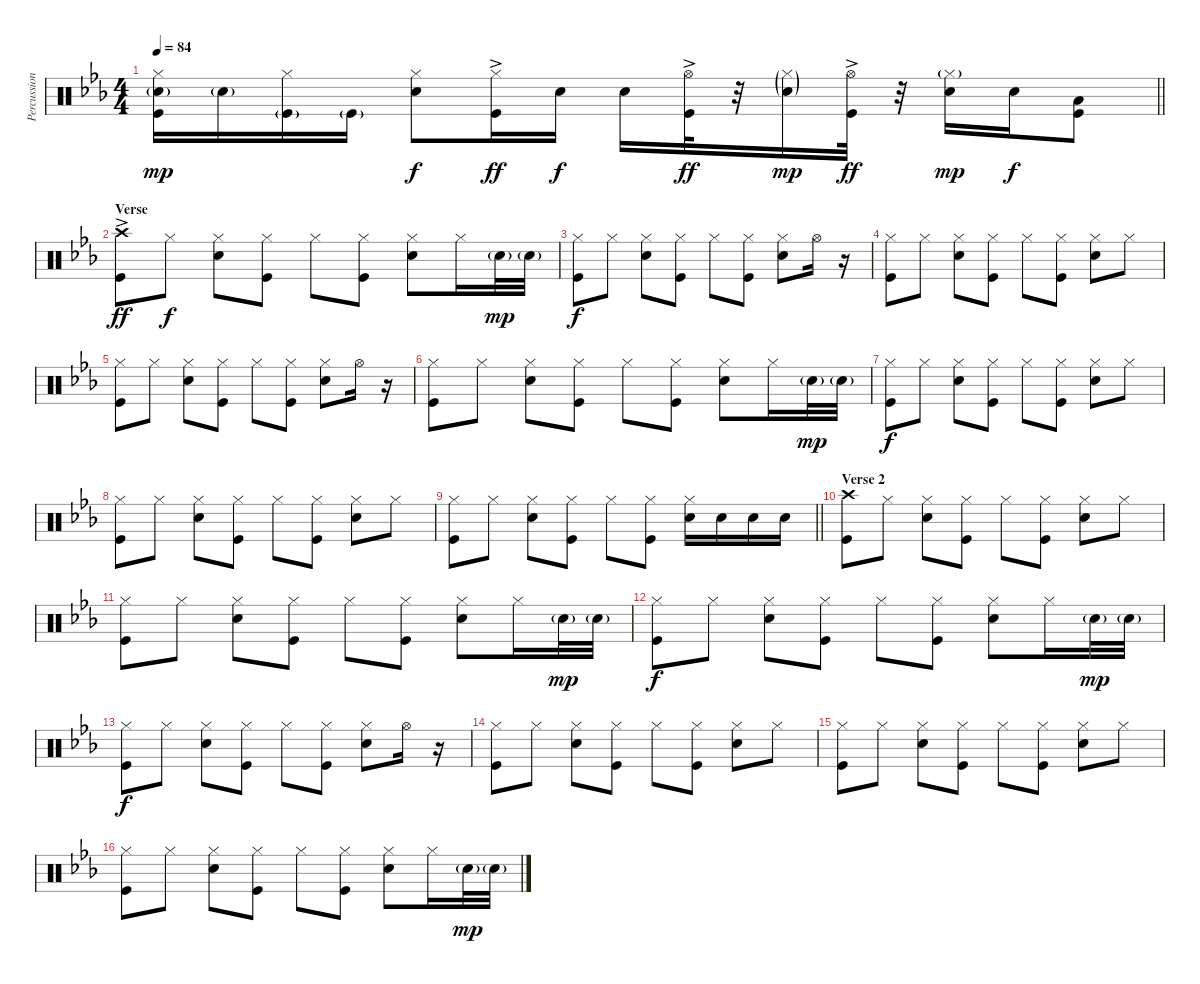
\track ("Percussion" "Percussion") {instrument percussion}
\staff {score}
\articulation defaults
\ts (4 4)
\tempo 84
\clef neutral
\barLineRight lightlight
\ks eb
("Hi-Hat (closed)" "Snare (hit) 2"{g} "Kick (hit)").16{dy mp} "Snare (hit) 2"{g}.16 ("Hi-Hat (closed)" "Kick (hit)"{g}).16 "Kick (hit)"{g}.16 ("Hi-Hat (closed)" "Snare (hit) 2").8{dy f} ("Hi-Hat (closed)" "Kick (hit)"{ac}).16{dy ff} "Snare (hit) 2".16{dy f} "Snare (hit) 2".16 ("Hi-Hat (open)" "Kick (hit)"{ac}).32{dy ff} r.32 ("Hi-Hat (closed)"{g} "Snare (hit) 2"{g}).16{dy mp} ("Hi-Hat (open)" "Kick (hit)"{ac}).32{dy ff} r.32 ("Hi-Hat (closed)"{g} "Snare (hit) 2").16{dy mp} "Snare (hit) 2".16{dy f} ("Low Tom (hit)" "Kick (hit)").8 |
\section ("" "Verse ")
("Crash high (hit)" "Kick (hit)"{ac}).8{dy ff} "Hi-Hat (closed)".8{dy f} ("Hi-Hat (closed)" "Snare (hit) 2").8 ("Hi-Hat (closed)" "Kick (hit)").8 "Hi-Hat (closed)".8 ("Hi-Hat (closed)" "Kick (hit)").8 ("Hi-Hat (closed)" "Snare (hit) 2").8 "Hi-Hat (closed)".16 "Snare (hit) 2"{g}.32{dy mp} "Snare (hit) 2"{g}.32 |
("Hi-Hat (closed)" "Kick (hit)").8{dy f} "Hi-Hat (closed)".8 ("Hi-Hat (closed)" "Snare (hit) 2").8 ("Hi-Hat (closed)" "Kick (hit)").8 "Hi-Hat (closed)".8 ("Hi-Hat (closed)" "Kick (hit)").8 ("Hi-Hat (closed)" "Snare (hit) 2").8 "Hi-Hat (open)".16 r.16 |
("Hi-Hat (closed)" "Kick (hit)").8 "Hi-Hat (closed)".8 ("Hi-Hat (closed)" "Snare (hit) 2").8 ("Hi-Hat (closed)" "Kick (hit)").8 "Hi-Hat (closed)".8 ("Hi-Hat (closed)" "Kick (hit)").8 ("Hi-Hat (closed)" "Snare (hit) 2").8 "Hi-Hat (closed)".8 |
("Hi-Hat (closed)" "Kick (hit)").8 "Hi-Hat (closed)".8 ("Hi-Hat (closed)" "Snare (hit) 2").8 ("Hi-Hat (closed)" "Kick (hit)").8 "Hi-Hat (closed)".8 ("Hi-Hat (closed)" "Kick (hit)").8 ("Hi-Hat (closed)" "Snare (hit) 2").8 "Hi-Hat (open)".16 r.16 |
("Hi-Hat (closed)" "Kick (hit)").8 "Hi-Hat (closed)".8 ("Hi-Hat (closed)" "Snare (hit) 2").8 ("Hi-Hat (closed)" "Kick (hit)").8 "Hi-Hat (closed)".8 ("Hi-Hat (closed)" "Kick (hit)").8 ("Hi-Hat (closed)" "Snare (hit) 2").8 "Hi-Hat (closed)".16 "Snare (hit) 2"{g}.32{dy mp} "Snare (hit) 2"{g}.32 |
("Hi-Hat (closed)" "Kick (hit)").8{dy f} "Hi-Hat (closed)".8 ("Hi-Hat (closed)" "Snare (hit) 2").8 ("Hi-Hat (closed)" "Kick (hit)").8 "Hi-Hat (closed)".8 ("Hi-Hat (closed)" "Kick (hit)").8 ("Hi-Hat (closed)" "Snare (hit) 2").8 "Hi-Hat (closed)".8 |
("Hi-Hat (closed)" "Kick (hit)").8 "Hi-Hat (closed)".8 ("Hi-Hat (closed)" "Snare (hit) 2").8 ("Hi-Hat (closed)" "Kick (hit)").8 "Hi-Hat (closed)".8 ("Hi-Hat (closed)" "Kick (hit)").8 ("Hi-Hat (closed)" "Snare (hit) 2").8 "Hi-Hat (closed)".8 |
\barLineRight lightlight
("Hi-Hat (closed)" "Kick (hit)").8 "Hi-Hat (closed)".8 ("Hi-Hat (closed)" "Snare (hit) 2").8 ("Hi-Hat (closed)" "Kick (hit)").8 "Hi-Hat (closed)".8 ("Hi-Hat (closed)" "Kick (hit)").8 ("Hi-Hat (closed)" "Snare (hit) 2").16 "Snare (hit) 2".16 "Snare (hit) 2".16 "Snare (hit) 2".16 |
\section ("" "Verse 2")
("Crash high (hit)" "Kick (hit)").8 "Hi-Hat (closed)".8 ("Hi-Hat (closed)" "Snare (hit) 2").8 ("Hi-Hat (closed)" "Kick (hit)").8 "Hi-Hat (closed)".8 ("Hi-Hat (closed)" "Kick (hit)").8 ("Hi-Hat (closed)" "Snare (hit) 2").8 "Hi-Hat (closed)".8 |
("Hi-Hat (closed)" "Kick (hit)").8 "Hi-Hat (closed)".8 ("Hi-Hat (closed)" "Snare (hit) 2").8 ("Hi-Hat (closed)" "Kick (hit)").8 "Hi-Hat (closed)".8 ("Hi-Hat (closed)" "Kick (hit)").8 ("Hi-Hat (closed)" "Snare (hit) 2").8 "Hi-Hat (closed)".16 "Snare (hit) 2"{g}.32{dy mp} "Snare (hit) 2"{g}.32 |
("Hi-Hat (closed)" "Kick (hit)").8{dy f} "Hi-Hat (closed)".8 ("Hi-Hat (closed)" "Snare (hit) 2").8 ("Hi-Hat (closed)" "Kick (hit)").8 "Hi-Hat (closed)".8 ("Hi-Hat (closed)" "Kick (hit)").8 ("Hi-Hat (closed)" "Snare (hit) 2").8 "Hi-Hat (closed)".16 "Snare (hit) 2"{g}.32{dy mp} "Snare (hit) 2"{g}.32 |
("Hi-Hat (closed)" "Kick (hit)").8{dy f} "Hi-Hat (closed)".8 ("Hi-Hat (closed)" "Snare (hit) 2").8 ("Hi-Hat (closed)" "Kick (hit)").8 "Hi-Hat (closed)".8 ("Hi-Hat (closed)" "Kick (hit)").8 ("Hi-Hat (closed)" "Snare (hit) 2").8 "Hi-Hat (open)".16 r.16 |
("Hi-Hat (closed)" "Kick (hit)").8 "Hi-Hat (closed)".8 ("Hi-Hat (closed)" "Snare (hit) 2").8 ("Hi-Hat (closed)" "Kick (hit)").8 "Hi-Hat (closed)".8 ("Hi-Hat (closed)" "Kick (hit)").8 ("Hi-Hat (closed)" "Snare (hit) 2").8 "Hi-Hat (closed)".8 |
("Hi-Hat (closed)" "Kick (hit)").8 "Hi-Hat (closed)".8 ("Hi-Hat (closed)" "Snare (hit) 2").8 ("Hi-Hat (closed)" "Kick (hit)").8 "Hi-Hat (closed)".8 ("Hi-Hat (closed)" "Kick (hit)").8 ("Hi-Hat (closed)" "Snare (hit) 2").8 "Hi-Hat (closed)".8 |
("Hi-Hat (closed)" "Kick (hit)").8 "Hi-Hat (closed)".8 ("Hi-Hat (closed)" "Snare (hit) 2").8 ("Hi-Hat (closed)" "Kick (hit)").8 "Hi-Hat (closed)".8 ("Hi-Hat (closed)" "Kick (hit)").8 ("Hi-Hat (closed)" "Snare (hit) 2").8 "Hi-Hat (closed)".16 "Snare (hit) 2"{g}.32{dy mp} "Snare (hit) 2"{g}.32
